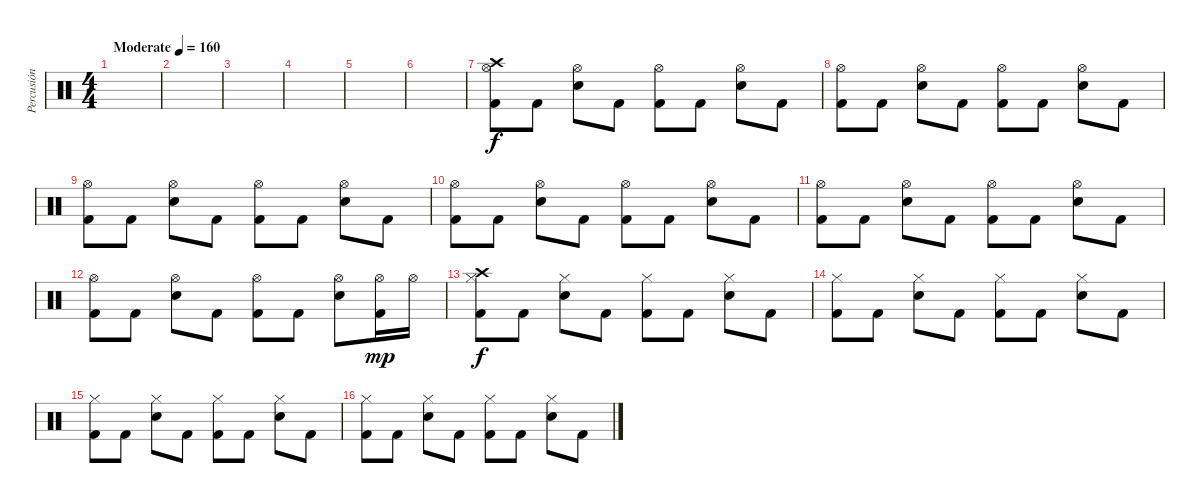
\track ("Percusión" "Percusión") {instrument percussion}
\staff {score}
\articulation defaults
\ts (4 4)
\tempo (160 "Moderate")
\clef neutral
\ks c
|
|
|
|
|
|
("Crash high (hit)" "Hi-Hat (open)" "Kick (hit) 2").8 "Kick (hit) 2".8 ("Hi-Hat (open)" "Snare (hit) 2").8 "Kick (hit) 2".8 ("Hi-Hat (open)" "Kick (hit) 2").8 "Kick (hit) 2".8 ("Hi-Hat (open)" "Snare (hit) 2").8 "Kick (hit) 2".8 |
("Hi-Hat (open)" "Kick (hit) 2").8 "Kick (hit) 2".8 ("Hi-Hat (open)" "Snare (hit) 2").8 "Kick (hit) 2".8 ("Hi-Hat (open)" "Kick (hit) 2").8 "Kick (hit) 2".8 ("Hi-Hat (open)" "Snare (hit) 2").8 "Kick (hit) 2".8 |
("Hi-Hat (open)" "Kick (hit) 2").8 "Kick (hit) 2".8 ("Hi-Hat (open)" "Snare (hit) 2").8 "Kick (hit) 2".8 ("Hi-Hat (open)" "Kick (hit) 2").8 "Kick (hit) 2".8 ("Hi-Hat (open)" "Snare (hit) 2").8 "Kick (hit) 2".8 |
("Hi-Hat (open)" "Kick (hit) 2").8 "Kick (hit) 2".8 ("Hi-Hat (open)" "Snare (hit) 2").8 "Kick (hit) 2".8 ("Hi-Hat (open)" "Kick (hit) 2").8 "Kick (hit) 2".8 ("Hi-Hat (open)" "Snare (hit) 2").8 "Kick (hit) 2".8 |
("Hi-Hat (open)" "Kick (hit) 2").8 "Kick (hit) 2".8 ("Hi-Hat (open)" "Snare (hit) 2").8 "Kick (hit) 2".8 ("Hi-Hat (open)" "Kick (hit) 2").8 "Kick (hit) 2".8 ("Hi-Hat (open)" "Snare (hit) 2").8 "Kick (hit) 2".8 |
("Hi-Hat (open)" "Kick (hit) 2").8 "Kick (hit) 2".8 ("Hi-Hat (open)" "Snare (hit) 2").8 "Kick (hit) 2".8 ("Hi-Hat (open)" "Kick (hit) 2").8 "Kick (hit) 2".8 ("Hi-Hat (open)" "Snare (hit) 2").8 ("Hi-Hat (open)" "Kick (hit) 2").16{dy mp} "Hi-Hat (open)".16 |
("Crash high (hit)" "Hi-Hat (closed)" "Kick (hit) 2").8{dy f} "Kick (hit) 2".8 ("Hi-Hat (closed)" "Snare (hit) 2").8 "Kick (hit) 2".8 ("Hi-Hat (closed)" "Kick (hit) 2").8 "Kick (hit) 2".8 ("Hi-Hat (closed)" "Snare (hit) 2").8 "Kick (hit) 2".8 |
("Hi-Hat (closed)" "Kick (hit) 2").8 "Kick (hit) 2".8 ("Hi-Hat (closed)" "Snare (hit) 2").8 "Kick (hit) 2".8 ("Hi-Hat (closed)" "Kick (hit) 2").8 "Kick (hit) 2".8 ("Hi-Hat (closed)" "Snare (hit) 2").8 "Kick (hit) 2".8 |
("Hi-Hat (closed)" "Kick (hit) 2").8 "Kick (hit) 2".8 ("Hi-Hat (closed)" "Snare (hit) 2").8 "Kick (hit) 2".8 ("Hi-Hat (closed)" "Kick (hit) 2").8 "Kick (hit) 2".8 ("Hi-Hat (closed)" "Snare (hit) 2").8 "Kick (hit) 2".8 |
("Hi-Hat (closed)" "Kick (hit) 2").8 "Kick (hit) 2".8 ("Hi-Hat (closed)" "Snare (hit) 2").8 "Kick (hit) 2".8 ("Hi-Hat (closed)" "Kick (hit) 2").8 "Kick (hit) 2".8 ("Hi-Hat (closed)" "Snare (hit) 2").8 "Kick (hit) 2".8
